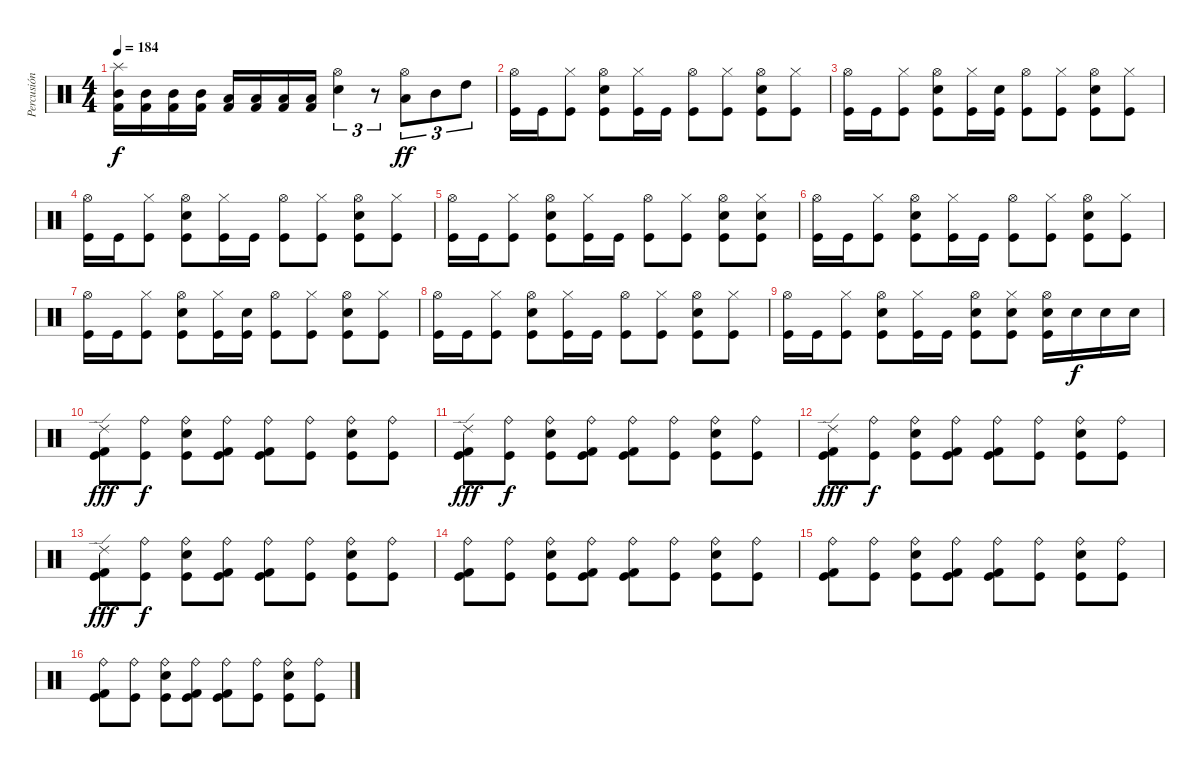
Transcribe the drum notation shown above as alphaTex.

\track ("Percusión" "Percusión") {instrument percussion}
\staff {score}
\articulation defaults
\ts (4 4)
\tempo 184
\clef neutral
\ks c
("Splash (hit)" "Mid Tom (hit)" "Kick (hit) 2").16{dy f} ("Mid Tom (hit)" "Kick (hit) 2").16 ("Mid Tom (hit)" "Kick (hit) 2").16 ("Mid Tom (hit)" "Kick (hit) 2").16 ("Low Tom (hit)" "Kick (hit) 2").16 ("Low Tom (hit)" "Kick (hit) 2").16 ("Low Floor Tom (hit)" "Kick (hit) 2").16 ("Low Floor Tom (hit)" "Kick (hit) 2").16 ("Hi-Hat (open)" "Electric Snare (hit)").4{tu (3 2)} r.8{tu (3 2)} ("Hi-Hat (open)" "Low Tom (hit)").8{tu (3 2) dy ff} "Mid Tom (hit)".8{tu (3 2)} "High Tom (hit)".8{tu (3 2)} |
("Hi-Hat (open)" "Kick (hit)").16 "Kick (hit)".16 ("Hi-Hat (closed)" "Kick (hit)").8 ("Hi-Hat (open)" "Electric Snare (hit)" "Kick (hit)").8 ("Hi-Hat (closed)" "Kick (hit)").16 "Kick (hit)".16 ("Hi-Hat (open)" "Kick (hit)").8 ("Hi-Hat (closed)" "Kick (hit)").8 ("Hi-Hat (open)" "Electric Snare (hit)" "Kick (hit)").8 ("Hi-Hat (closed)" "Kick (hit)").8 |
("Hi-Hat (open)" "Kick (hit)").16 "Kick (hit)".16 ("Hi-Hat (closed)" "Kick (hit)").8 ("Hi-Hat (open)" "Electric Snare (hit)" "Kick (hit)").8 ("Hi-Hat (closed)" "Kick (hit)").16 ("Electric Snare (hit)" "Kick (hit)").16 ("Hi-Hat (open)" "Kick (hit)").8 ("Hi-Hat (closed)" "Kick (hit)").8 ("Hi-Hat (open)" "Electric Snare (hit)" "Kick (hit)").8 ("Hi-Hat (closed)" "Kick (hit)").8 |
("Hi-Hat (open)" "Kick (hit)").16 "Kick (hit)".16 ("Hi-Hat (closed)" "Kick (hit)").8 ("Hi-Hat (open)" "Electric Snare (hit)" "Kick (hit)").8 ("Hi-Hat (closed)" "Kick (hit)").16 "Kick (hit)".16 ("Hi-Hat (open)" "Kick (hit)").8 ("Hi-Hat (closed)" "Kick (hit)").8 ("Hi-Hat (open)" "Electric Snare (hit)" "Kick (hit)").8 ("Hi-Hat (closed)" "Kick (hit)").8 |
("Hi-Hat (open)" "Kick (hit)").16 "Kick (hit)".16 ("Hi-Hat (closed)" "Kick (hit)").8 ("Hi-Hat (open)" "Electric Snare (hit)" "Kick (hit)").8 ("Hi-Hat (closed)" "Kick (hit)").16 "Kick (hit)".16 ("Hi-Hat (open)" "Kick (hit)").8 ("Hi-Hat (closed)" "Kick (hit)").8 ("Hi-Hat (open)" "Electric Snare (hit)" "Kick (hit)").8 ("Hi-Hat (closed)" "Electric Snare (hit)" "Kick (hit)").8 |
("Hi-Hat (open)" "Kick (hit)").16 "Kick (hit)".16 ("Hi-Hat (closed)" "Kick (hit)").8 ("Hi-Hat (open)" "Electric Snare (hit)" "Kick (hit)").8 ("Hi-Hat (closed)" "Kick (hit)").16 "Kick (hit)".16 ("Hi-Hat (open)" "Kick (hit)").8 ("Hi-Hat (closed)" "Kick (hit)").8 ("Hi-Hat (open)" "Electric Snare (hit)" "Kick (hit)").8 ("Hi-Hat (closed)" "Kick (hit)").8 |
("Hi-Hat (open)" "Kick (hit)").16 "Kick (hit)".16 ("Hi-Hat (closed)" "Kick (hit)").8 ("Hi-Hat (open)" "Electric Snare (hit)" "Kick (hit)").8 ("Hi-Hat (closed)" "Kick (hit)").16 ("Electric Snare (hit)" "Kick (hit)").16 ("Hi-Hat (open)" "Kick (hit)").8 ("Hi-Hat (closed)" "Kick (hit)").8 ("Hi-Hat (open)" "Electric Snare (hit)" "Kick (hit)").8 ("Hi-Hat (closed)" "Kick (hit)").8 |
("Hi-Hat (open)" "Kick (hit)").16 "Kick (hit)".16 ("Hi-Hat (closed)" "Kick (hit)").8 ("Hi-Hat (open)" "Electric Snare (hit)" "Kick (hit)").8 ("Hi-Hat (closed)" "Kick (hit)").16 "Kick (hit)".16 ("Hi-Hat (open)" "Kick (hit)").8 ("Hi-Hat (closed)" "Kick (hit)").8 ("Hi-Hat (open)" "Electric Snare (hit)" "Kick (hit)").8 ("Hi-Hat (closed)" "Kick (hit)").8 |
("Hi-Hat (open)" "Kick (hit)").16 "Kick (hit)".16 ("Hi-Hat (closed)" "Kick (hit)").8 ("Hi-Hat (open)" "Electric Snare (hit)" "Kick (hit)").8 ("Hi-Hat (closed)" "Kick (hit)").16 "Kick (hit)".16 ("Hi-Hat (open)" "Electric Snare (hit)" "Kick (hit)").8 ("Hi-Hat (closed)" "Electric Snare (hit)" "Kick (hit)").8 ("Hi-Hat (open)" "Electric Snare (hit)" "Kick (hit)").16 "Electric Snare (hit)".16{dy f} "Electric Snare (hit)".16 "Electric Snare (hit)".16 |
("Ride (edge) 2" "Kick (hit) 2" "Kick (hit)").8{dy fff} ("Ride (bell)" "Kick (hit)").8{dy f} ("Ride (bell)" "Electric Snare (hit)" "Kick (hit)").8 ("Ride (bell)" "Kick (hit) 2" "Kick (hit)").8 ("Ride (bell)" "Kick (hit) 2" "Kick (hit)").8 ("Ride (bell)" "Kick (hit)").8 ("Ride (bell)" "Electric Snare (hit)" "Kick (hit)").8 ("Ride (bell)" "Kick (hit)").8 |
("Ride (edge) 2" "Kick (hit) 2" "Kick (hit)").8{dy fff} ("Ride (bell)" "Kick (hit)").8{dy f} ("Ride (bell)" "Electric Snare (hit)" "Kick (hit)").8 ("Ride (bell)" "Kick (hit) 2" "Kick (hit)").8 ("Ride (bell)" "Kick (hit) 2" "Kick (hit)").8 ("Ride (bell)" "Kick (hit)").8 ("Ride (bell)" "Electric Snare (hit)" "Kick (hit)").8 ("Ride (bell)" "Kick (hit)").8 |
("Ride (edge) 2" "Kick (hit) 2" "Kick (hit)").8{dy fff} ("Ride (bell)" "Kick (hit)").8{dy f} ("Ride (bell)" "Electric Snare (hit)" "Kick (hit)").8 ("Ride (bell)" "Kick (hit) 2" "Kick (hit)").8 ("Ride (bell)" "Kick (hit) 2" "Kick (hit)").8 ("Ride (bell)" "Kick (hit)").8 ("Ride (bell)" "Electric Snare (hit)" "Kick (hit)").8 ("Ride (bell)" "Kick (hit)").8 |
("Ride (edge) 2" "Kick (hit) 2" "Kick (hit)").8{dy fff} ("Ride (bell)" "Kick (hit)").8{dy f} ("Ride (bell)" "Electric Snare (hit)" "Kick (hit)").8 ("Ride (bell)" "Kick (hit) 2" "Kick (hit)").8 ("Ride (bell)" "Kick (hit) 2" "Kick (hit)").8 ("Ride (bell)" "Kick (hit)").8 ("Ride (bell)" "Electric Snare (hit)" "Kick (hit)").8 ("Ride (bell)" "Kick (hit)").8 |
("Ride (bell)" "Kick (hit) 2" "Kick (hit)").8 ("Ride (bell)" "Kick (hit)").8 ("Ride (bell)" "Electric Snare (hit)" "Kick (hit)").8 ("Ride (bell)" "Kick (hit) 2" "Kick (hit)").8 ("Ride (bell)" "Kick (hit) 2" "Kick (hit)").8 ("Ride (bell)" "Kick (hit)").8 ("Ride (bell)" "Electric Snare (hit)" "Kick (hit)").8 ("Ride (bell)" "Kick (hit)").8 |
("Ride (bell)" "Kick (hit) 2" "Kick (hit)").8 ("Ride (bell)" "Kick (hit)").8 ("Ride (bell)" "Electric Snare (hit)" "Kick (hit)").8 ("Ride (bell)" "Kick (hit) 2" "Kick (hit)").8 ("Ride (bell)" "Kick (hit) 2" "Kick (hit)").8 ("Ride (bell)" "Kick (hit)").8 ("Ride (bell)" "Electric Snare (hit)" "Kick (hit)").8 ("Ride (bell)" "Kick (hit)").8 |
("Ride (bell)" "Kick (hit) 2" "Kick (hit)").8 ("Ride (bell)" "Kick (hit)").8 ("Ride (bell)" "Electric Snare (hit)" "Kick (hit)").8 ("Ride (bell)" "Kick (hit) 2" "Kick (hit)").8 ("Ride (bell)" "Kick (hit) 2" "Kick (hit)").8 ("Ride (bell)" "Kick (hit)").8 ("Ride (bell)" "Electric Snare (hit)" "Kick (hit)").8 ("Ride (bell)" "Kick (hit)").8
